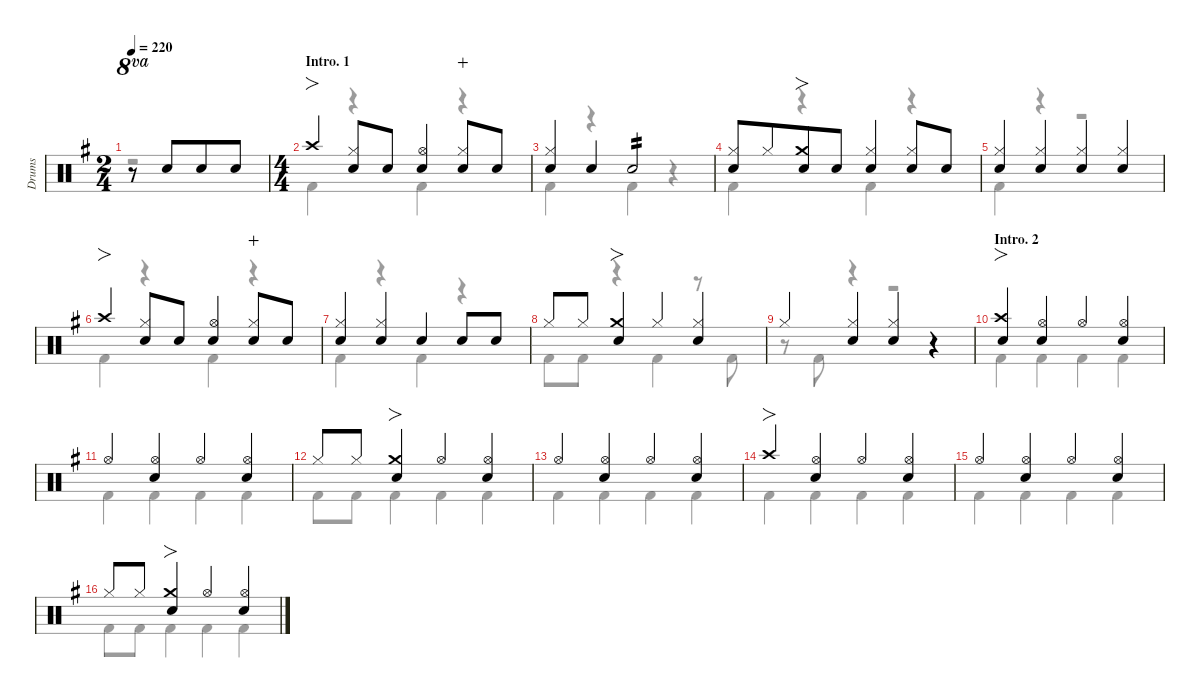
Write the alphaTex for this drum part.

\hideDynamics
\bracketExtendMode nobrackets
\multiBarRest
\otherSystemsTrackNameOrientation horizontal
\track ("Drums" "Drums") {defaultSystemsLayout 4 multiBarRest instrument percussion}
\staff {score}
\articulation defaults
\voice
\ts (2 4)
\beaming (8 2 2)
\tempo 220
\clef neutral
\scale
1.11063
\ks g
r.8{ot 8va dy mf beam Up} "Snare (hit) 2"{acc forcenatural}.8{beam Up beam merge} "Snare (hit) 2"{acc forcenatural}.8{dy f beam Up beam merge} "Snare (hit) 2"{acc forcenatural}.8{dy mf beam Up} |
\ts (4 4)
\beaming (8 4 4)
\section ("" "Intro. 1")
\scale
1.11621 "Crash high (hit)"{acc forcenatural}.4{fo dy f beam Up} ("Snare (hit) 2"{acc forcenatural} "Hi-Hat (closed)"{acc forcenatural}).8{beam Up} "Snare (hit) 2"{acc forcenatural}.8{dy mf beam Up} ("Snare (hit) 2"{acc forcenatural} "Hi-Hat (open)"{acc forcenatural}).4{dy f beam Up} ("Snare (hit) 2"{acc forcenatural} "Hi-Hat (closed)"{acc forcenatural}).8{wahc beam Up} "Snare (hit) 2"{acc forcenatural}.8{dy mf beam Up} |
\scale
0.961263 ("Snare (hit) 2"{acc forcenatural} "Hi-Hat (closed)"{acc forcenatural}).4{dy f beam Up} "Snare (hit) 2"{acc forcenatural}.4{beam Up} "Snare (hit) 2"{acc forcenatural}.2{tp 2 dy mp beam Up} |
\scale
0.961263 ("Snare (hit) 2"{acc forcenatural} "Hi-Hat (closed)"{acc forcenatural}).8{dy f beam Up} "Hi-Hat (closed)"{acc forcenatural}.8{dy mf beam Up} ("Crash medium (hit)"{acc forcenatural} "Snare (hit) 2"{acc forcenatural}).8{fo dy f beam Up} "Snare (hit) 2"{acc forcenatural}.8{beam Up} ("Snare (hit) 2"{acc forcenatural} "Hi-Hat (closed)"{acc forcenatural}).4{beam Up} ("Snare (hit) 2"{acc forcenatural} "Hi-Hat (closed)"{acc forcenatural}).8{beam Up} "Snare (hit) 2"{acc forcenatural}.8{dy mf beam Up} |
\scale
0.961263 ("Snare (hit) 2"{acc forcenatural} "Hi-Hat (closed)"{acc forcenatural}).4{dy f beam Up} ("Hi-Hat (closed)"{acc forcenatural} "Snare (hit) 2"{acc forcenatural}).4{beam Up} ("Hi-Hat (closed)"{acc forcenatural} "Snare (hit) 2"{acc forcenatural}).4{beam Up} ("Hi-Hat (closed)"{acc forcenatural} "Snare (hit) 2"{acc forcenatural}).4{beam Up} |
\scale
1.05921 "Crash high (hit)"{acc forcenatural}.4{fo beam Up} ("Snare (hit) 2"{acc forcenatural} "Hi-Hat (closed)"{acc forcenatural}).8{beam Up} "Snare (hit) 2"{acc forcenatural}.8{dy mf beam Up} ("Snare (hit) 2"{acc forcenatural} "Hi-Hat (open)"{acc forcenatural}).4{dy f beam Up} ("Snare (hit) 2"{acc forcenatural} "Hi-Hat (closed)"{acc forcenatural}).8{wahc beam Up} "Snare (hit) 2"{acc forcenatural}.8{dy mf beam Up} |
\scale
0.974368 ("Hi-Hat (closed)"{acc forcenatural} "Snare (hit) 2"{acc forcenatural}).4{dy f beam Up} ("Hi-Hat (closed)"{acc forcenatural} "Snare (hit) 2"{acc forcenatural}).4{beam Up} "Snare (hit) 2"{acc forcenatural}.4{beam Up} "Snare (hit) 2"{acc forcenatural}.8{beam Up} "Snare (hit) 2"{acc forcenatural}.8{dy mf beam Up} |
\scale
0.974368 "Hi-Hat (closed)"{acc forcenatural}.8{dy f beam Up} "Hi-Hat (closed)"{acc forcenatural}.8{dy mf beam Up} ("Crash medium (hit)"{acc forcenatural} "Snare (hit) 2"{acc forcenatural}).4{fo dy f beam Up} "Hi-Hat (closed)"{acc forcenatural}.4{beam Up} ("Snare (hit) 2"{acc forcenatural} "Hi-Hat (closed)"{acc forcenatural}).4{beam Up} |
\scale
0.992053 "Hi-Hat (closed)"{acc forcenatural}.4{beam Up} ("Snare (hit) 2"{acc forcenatural} "Hi-Hat (closed)"{acc forcenatural}).4{beam Up} ("Snare (hit) 2"{acc forcenatural} "Hi-Hat (closed)"{acc forcenatural}).4{beam Up} r.4{beam Up} |
\section ("" "Intro. 2")
\scale
1.06363 ("Crash high (hit)"{acc forcenatural} "Snare (hit) 2"{acc forcenatural}).4{fo beam Up} ("Hi-Hat (open)"{acc forcenatural} "Snare (hit) 2"{acc forcenatural}).4{beam Up} "Hi-Hat (open)"{acc forcenatural}.4{beam Up} ("Hi-Hat (open)"{acc forcenatural} "Snare (hit) 2"{acc forcenatural}).4{beam Up} |
\scale
0.97879 "Hi-Hat (open)"{acc forcenatural}.4{beam Up} ("Hi-Hat (open)"{acc forcenatural} "Snare (hit) 2"{acc forcenatural}).4{beam Up} "Hi-Hat (open)"{acc forcenatural}.4{beam Up} ("Hi-Hat (open)"{acc forcenatural} "Snare (hit) 2"{acc forcenatural}).4{beam Up} |
\scale
0.97879 "Hi-Hat (closed)"{acc forcenatural}.8{beam Up} "Hi-Hat (closed)"{acc forcenatural}.8{dy mf beam Up} ("Crash medium (hit)"{acc forcenatural} "Snare (hit) 2"{acc forcenatural}).4{fo dy f beam Up} "Hi-Hat (open)"{acc forcenatural}.4{beam Up} ("Hi-Hat (open)"{acc forcenatural} "Snare (hit) 2"{acc forcenatural}).4{beam Up} |
\scale
0.97879 "Hi-Hat (open)"{acc forcenatural}.4{beam Up} ("Hi-Hat (open)"{acc forcenatural} "Snare (hit) 2"{acc forcenatural}).4{beam Up} "Hi-Hat (open)"{acc forcenatural}.4{beam Up} ("Hi-Hat (open)"{acc forcenatural} "Snare (hit) 2"{acc forcenatural}).4{beam Up} |
\scale
1.06363 "Crash high (hit)"{acc forcenatural}.4{fo beam Up} ("Hi-Hat (open)"{acc forcenatural} "Snare (hit) 2"{acc forcenatural}).4{beam Up} "Hi-Hat (open)"{acc forcenatural}.4{beam Up} ("Hi-Hat (open)"{acc forcenatural} "Snare (hit) 2"{acc forcenatural}).4{beam Up} |
\scale
0.97879 "Hi-Hat (open)"{acc forcenatural}.4{beam Up} ("Hi-Hat (open)"{acc forcenatural} "Snare (hit) 2"{acc forcenatural}).4{beam Up} "Hi-Hat (open)"{acc forcenatural}.4{beam Up} ("Hi-Hat (open)"{acc forcenatural} "Snare (hit) 2"{acc forcenatural}).4{beam Up} |
\scale
0.97879 "Hi-Hat (closed)"{acc forcenatural}.8{beam Up} "Hi-Hat (closed)"{acc forcenatural}.8{dy mf beam Up} ("Crash medium (hit)"{acc forcenatural} "Snare (hit) 2"{acc forcenatural}).4{fo dy f beam Up} "Hi-Hat (open)"{acc forcenatural}.4{beam Up} ("Hi-Hat (open)"{acc forcenatural} "Snare (hit) 2"{acc forcenatural}).4{beam Up}
\voice
\clef neutral
\ottava regular
\simile none
\scale
1.11063
\ks g
r.2{dy f beam Down} |
\scale
1.11621 "Kick (hit) 2"{acc forcenatural}.4{beam Down} r.4{beam Down} "Kick (hit) 2"{acc forcenatural}.4{beam Down} r.4{beam Down} |
\scale
0.961263 "Kick (hit) 2"{acc forcenatural}.4{beam Down} r.4{beam Down} "Kick (hit) 2"{acc forcenatural}.4{beam Down} r.4{beam Down} |
\scale
0.961263 "Kick (hit) 2"{acc forcenatural}.4{beam Down} r.4{beam Down} "Kick (hit) 2"{acc forcenatural}.4{beam Down} r.4{beam Down} |
\scale
0.961263 "Kick (hit) 2"{acc forcenatural}.4{beam Down} r.4{beam Down} r.2{beam Down} |
\scale
1.05921 "Kick (hit) 2"{acc forcenatural}.4{beam Down} r.4{beam Down} "Kick (hit) 2"{acc forcenatural}.4{beam Down} r.4{beam Down} |
\scale
0.974368 "Kick (hit) 2"{acc forcenatural}.4{beam Down} r.4{beam Down} "Kick (hit) 2"{acc forcenatural}.4{beam Down} r.4{beam Down} |
\scale
0.974368 "Kick (hit) 2"{acc forcenatural}.8{beam Down} "Kick (hit) 2"{acc forcenatural}.8{beam Down} r.4{beam Down} "Kick (hit) 2"{acc forcenatural}.4{beam Down} r.8{beam Down} "Kick (hit) 2"{acc forcenatural}.8{beam Down} |
\scale
0.992053 r.8{beam Down} "Kick (hit) 2"{acc forcenatural}.8{beam Down} r.4{beam Down} r.2{beam Down} |
\scale
1.06363 "Kick (hit) 2"{acc forcenatural}.4{beam Down} "Kick (hit) 2"{acc forcenatural}.4{beam Down} "Kick (hit) 2"{acc forcenatural}.4{beam Down} "Kick (hit) 2"{acc forcenatural}.4{beam Down} |
\scale
0.97879 "Kick (hit) 2"{acc forcenatural}.4{beam Down} "Kick (hit) 2"{acc forcenatural}.4{beam Down} "Kick (hit) 2"{acc forcenatural}.4{beam Down} "Kick (hit) 2"{acc forcenatural}.4{beam Down} |
\scale
0.97879 "Kick (hit) 2"{acc forcenatural}.8{beam Down} "Kick (hit) 2"{acc forcenatural}.8{beam Down} "Kick (hit) 2"{acc forcenatural}.4{beam Down} "Kick (hit) 2"{acc forcenatural}.4{beam Down} "Kick (hit) 2"{acc forcenatural}.4{beam Down} |
\scale
0.97879 "Kick (hit) 2"{acc forcenatural}.4{beam Down} "Kick (hit) 2"{acc forcenatural}.4{beam Down} "Kick (hit) 2"{acc forcenatural}.4{beam Down} "Kick (hit) 2"{acc forcenatural}.4{beam Down} |
\scale
1.06363 "Kick (hit) 2"{acc forcenatural}.4{beam Down} "Kick (hit) 2"{acc forcenatural}.4{beam Down} "Kick (hit) 2"{acc forcenatural}.4{beam Down} "Kick (hit) 2"{acc forcenatural}.4{beam Down} |
\scale
0.97879 "Kick (hit) 2"{acc forcenatural}.4{beam Down} "Kick (hit) 2"{acc forcenatural}.4{beam Down} "Kick (hit) 2"{acc forcenatural}.4{beam Down} "Kick (hit) 2"{acc forcenatural}.4{beam Down} |
\scale
0.97879 "Kick (hit) 2"{acc forcenatural}.8{beam Down} "Kick (hit) 2"{acc forcenatural}.8{beam Down} "Kick (hit) 2"{acc forcenatural}.4{beam Down} "Kick (hit) 2"{acc forcenatural}.4{beam Down} "Kick (hit) 2"{acc forcenatural}.4{beam Down}
